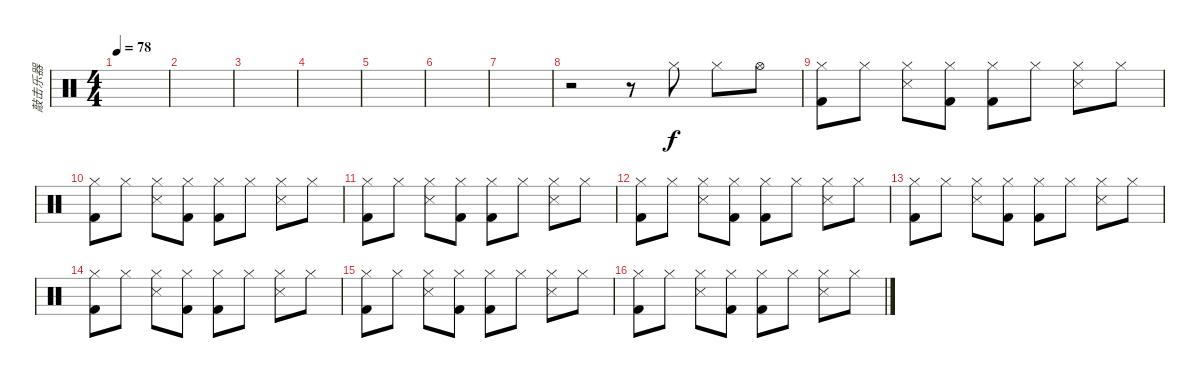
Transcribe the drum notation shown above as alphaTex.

\track ("敲击乐器" "敲击乐器") {instrument percussion}
\staff {score}
\articulation defaults
\ts (4 4)
\tempo 78
\clef neutral
\ks c
|
|
|
|
|
|
|
r.2 r.8 "Hi-Hat (closed)".8 "Hi-Hat (closed)".8 "Hi-Hat (open)".8 |
("Kick (hit) 2" "Hi-Hat (closed)").8 "Hi-Hat (closed)".8 ("Snare (side stick) 3" "Hi-Hat (closed)").8 ("Kick (hit) 2" "Hi-Hat (closed)").8 ("Kick (hit) 2" "Hi-Hat (closed)").8 "Hi-Hat (closed)".8 ("Snare (side stick) 3" "Hi-Hat (closed)").8 "Hi-Hat (closed)".8 |
("Kick (hit) 2" "Hi-Hat (closed)").8 "Hi-Hat (closed)".8 ("Snare (side stick) 3" "Hi-Hat (closed)").8 ("Kick (hit) 2" "Hi-Hat (closed)").8 ("Kick (hit) 2" "Hi-Hat (closed)").8 "Hi-Hat (closed)".8 ("Snare (side stick) 3" "Hi-Hat (closed)").8 "Hi-Hat (closed)".8 |
("Kick (hit) 2" "Hi-Hat (closed)").8 "Hi-Hat (closed)".8 ("Snare (side stick) 3" "Hi-Hat (closed)").8 ("Kick (hit) 2" "Hi-Hat (closed)").8 ("Kick (hit) 2" "Hi-Hat (closed)").8 "Hi-Hat (closed)".8 ("Snare (side stick) 3" "Hi-Hat (closed)").8 "Hi-Hat (closed)".8 |
("Kick (hit) 2" "Hi-Hat (closed)").8 "Hi-Hat (closed)".8 ("Snare (side stick) 3" "Hi-Hat (closed)").8 ("Kick (hit) 2" "Hi-Hat (closed)").8 ("Kick (hit) 2" "Hi-Hat (closed)").8 "Hi-Hat (closed)".8 ("Snare (side stick) 3" "Hi-Hat (closed)").8 "Hi-Hat (closed)".8 |
("Kick (hit) 2" "Hi-Hat (closed)").8 "Hi-Hat (closed)".8 ("Snare (side stick) 3" "Hi-Hat (closed)").8 ("Kick (hit) 2" "Hi-Hat (closed)").8 ("Kick (hit) 2" "Hi-Hat (closed)").8 "Hi-Hat (closed)".8 ("Snare (side stick) 3" "Hi-Hat (closed)").8 "Hi-Hat (closed)".8 |
("Kick (hit) 2" "Hi-Hat (closed)").8 "Hi-Hat (closed)".8 ("Snare (side stick) 3" "Hi-Hat (closed)").8 ("Kick (hit) 2" "Hi-Hat (closed)").8 ("Kick (hit) 2" "Hi-Hat (closed)").8 "Hi-Hat (closed)".8 ("Snare (side stick) 3" "Hi-Hat (closed)").8 "Hi-Hat (closed)".8 |
("Kick (hit) 2" "Hi-Hat (closed)").8 "Hi-Hat (closed)".8 ("Snare (side stick) 3" "Hi-Hat (closed)").8 ("Kick (hit) 2" "Hi-Hat (closed)").8 ("Kick (hit) 2" "Hi-Hat (closed)").8 "Hi-Hat (closed)".8 ("Snare (side stick) 3" "Hi-Hat (closed)").8 "Hi-Hat (closed)".8 |
("Kick (hit) 2" "Hi-Hat (closed)").8 "Hi-Hat (closed)".8 ("Snare (side stick) 3" "Hi-Hat (closed)").8 ("Kick (hit) 2" "Hi-Hat (closed)").8 ("Kick (hit) 2" "Hi-Hat (closed)").8 "Hi-Hat (closed)".8 ("Snare (side stick) 3" "Hi-Hat (closed)").8 "Hi-Hat (closed)".8
